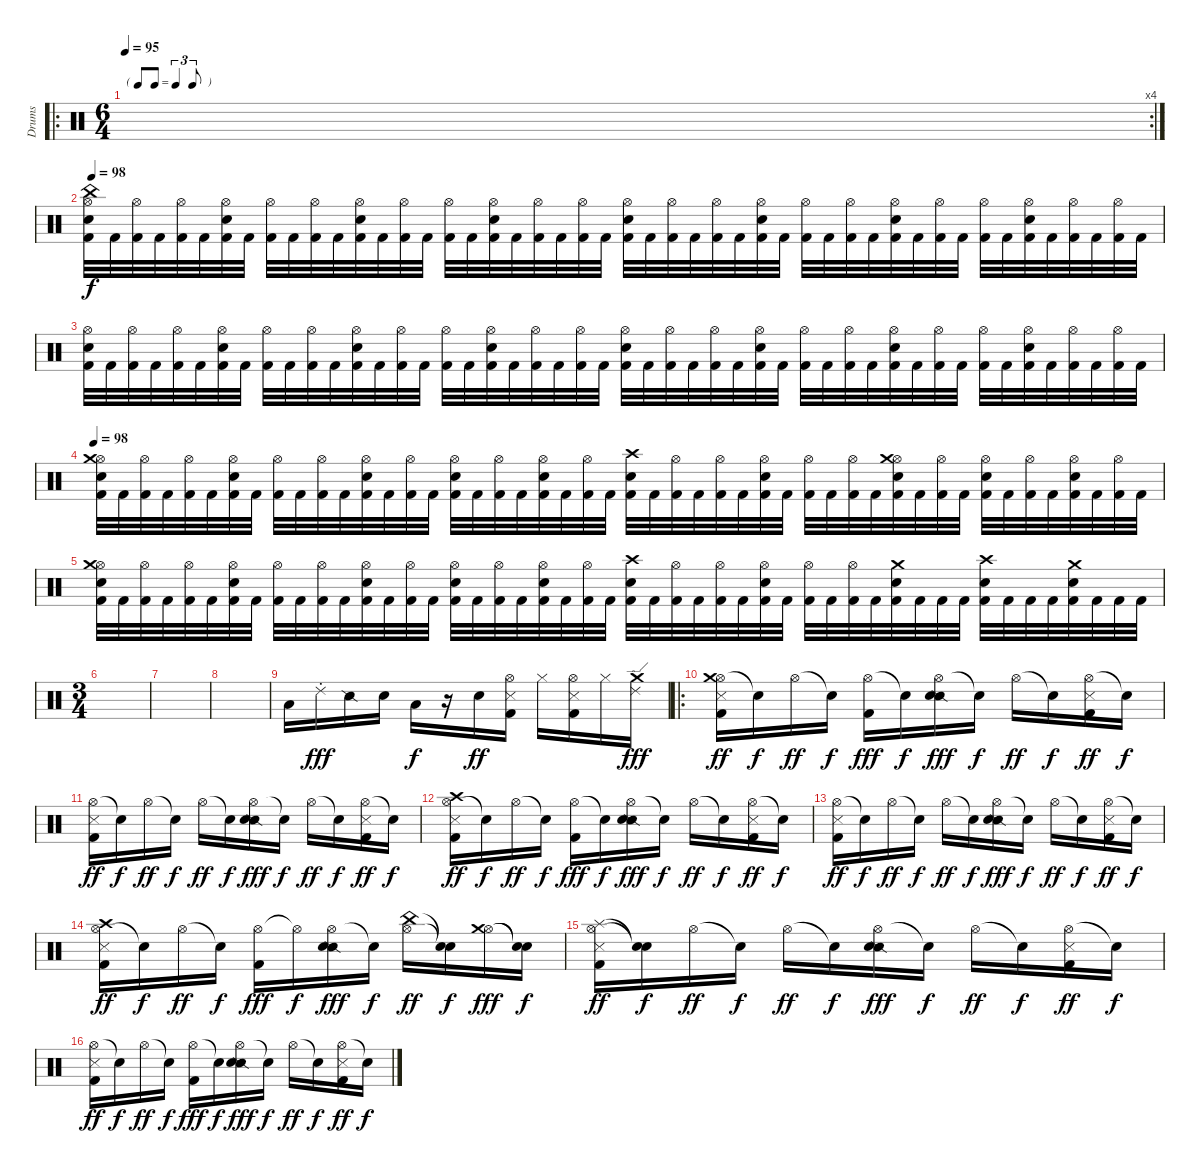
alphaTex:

\track ("Drums" "Drums") {instrument percussion}
\staff {score}
\articulation defaults
\ro
\rc 4
\ts (6 4)
\tf triplet8th
\tempo 95
\clef neutral
\ks c
|
\tempo 98
("Hi-Hat (open)" "China (hit)" "Electric Snare (hit)" "Kick (hit) 2").32 "Kick (hit) 2".32 ("Hi-Hat (open)" "Kick (hit) 2").32 "Kick (hit) 2".32 ("Hi-Hat (open)" "Kick (hit) 2").32 "Kick (hit) 2".32 ("Hi-Hat (open)" "Electric Snare (hit)" "Kick (hit) 2").32 "Kick (hit) 2".32 ("Hi-Hat (open)" "Kick (hit) 2").32 "Kick (hit) 2".32 ("Hi-Hat (open)" "Kick (hit) 2").32 "Kick (hit) 2".32 ("Hi-Hat (open)" "Electric Snare (hit)" "Kick (hit) 2").32 "Kick (hit) 2".32 ("Hi-Hat (open)" "Kick (hit) 2").32 "Kick (hit) 2".32 ("Hi-Hat (open)" "Kick (hit) 2").32 "Kick (hit) 2".32 ("Hi-Hat (open)" "Electric Snare (hit)" "Kick (hit) 2").32 "Kick (hit) 2".32 ("Hi-Hat (open)" "Kick (hit) 2").32 "Kick (hit) 2".32 ("Hi-Hat (open)" "Kick (hit) 2").32 "Kick (hit) 2".32 ("Hi-Hat (open)" "Electric Snare (hit)" "Kick (hit) 2").32 "Kick (hit) 2".32 ("Hi-Hat (open)" "Kick (hit) 2").32 "Kick (hit) 2".32 ("Hi-Hat (open)" "Kick (hit) 2").32 "Kick (hit) 2".32 ("Hi-Hat (open)" "Electric Snare (hit)" "Kick (hit) 2").32 "Kick (hit) 2".32 ("Hi-Hat (open)" "Kick (hit) 2").32 "Kick (hit) 2".32 ("Hi-Hat (open)" "Kick (hit) 2").32 "Kick (hit) 2".32 ("Hi-Hat (open)" "Electric Snare (hit)" "Kick (hit) 2").32 "Kick (hit) 2".32 ("Hi-Hat (open)" "Kick (hit) 2").32 "Kick (hit) 2".32 ("Hi-Hat (open)" "Kick (hit) 2").32 "Kick (hit) 2".32 ("Hi-Hat (open)" "Electric Snare (hit)" "Kick (hit) 2").32 "Kick (hit) 2".32 ("Hi-Hat (open)" "Kick (hit) 2").32 "Kick (hit) 2".32 ("Hi-Hat (open)" "Kick (hit) 2").32 "Kick (hit) 2".32 |
("Hi-Hat (open)" "Electric Snare (hit)" "Kick (hit) 2").32 "Kick (hit) 2".32 ("Hi-Hat (open)" "Kick (hit) 2").32 "Kick (hit) 2".32 ("Hi-Hat (open)" "Kick (hit) 2").32 "Kick (hit) 2".32 ("Hi-Hat (open)" "Electric Snare (hit)" "Kick (hit) 2").32 "Kick (hit) 2".32 ("Hi-Hat (open)" "Kick (hit) 2").32 "Kick (hit) 2".32 ("Hi-Hat (open)" "Kick (hit) 2").32 "Kick (hit) 2".32 ("Hi-Hat (open)" "Electric Snare (hit)" "Kick (hit) 2").32 "Kick (hit) 2".32 ("Hi-Hat (open)" "Kick (hit) 2").32 "Kick (hit) 2".32 ("Hi-Hat (open)" "Kick (hit) 2").32 "Kick (hit) 2".32 ("Hi-Hat (open)" "Electric Snare (hit)" "Kick (hit) 2").32 "Kick (hit) 2".32 ("Hi-Hat (open)" "Kick (hit) 2").32 "Kick (hit) 2".32 ("Hi-Hat (open)" "Kick (hit) 2").32 "Kick (hit) 2".32 ("Hi-Hat (open)" "Electric Snare (hit)" "Kick (hit) 2").32 "Kick (hit) 2".32 ("Hi-Hat (open)" "Kick (hit) 2").32 "Kick (hit) 2".32 ("Hi-Hat (open)" "Kick (hit) 2").32 "Kick (hit) 2".32 ("Hi-Hat (open)" "Electric Snare (hit)" "Kick (hit) 2").32 "Kick (hit) 2".32 ("Hi-Hat (open)" "Kick (hit) 2").32 "Kick (hit) 2".32 ("Hi-Hat (open)" "Kick (hit) 2").32 "Kick (hit) 2".32 ("Hi-Hat (open)" "Electric Snare (hit)" "Kick (hit) 2").32 "Kick (hit) 2".32 ("Hi-Hat (open)" "Kick (hit) 2").32 "Kick (hit) 2".32 ("Hi-Hat (open)" "Kick (hit) 2").32 "Kick (hit) 2".32 ("Hi-Hat (open)" "Electric Snare (hit)" "Kick (hit) 2").32 "Kick (hit) 2".32 ("Hi-Hat (open)" "Kick (hit) 2").32 "Kick (hit) 2".32 ("Hi-Hat (open)" "Kick (hit) 2").32 "Kick (hit) 2".32 |
\tempo 98
("Hi-Hat (open)" "Crash medium (hit)" "Electric Snare (hit)" "Kick (hit) 2").32 "Kick (hit) 2".32 ("Hi-Hat (open)" "Kick (hit) 2").32 "Kick (hit) 2".32 ("Hi-Hat (open)" "Kick (hit) 2").32 "Kick (hit) 2".32 ("Hi-Hat (open)" "Electric Snare (hit)" "Kick (hit) 2").32 "Kick (hit) 2".32 ("Hi-Hat (open)" "Kick (hit) 2").32 "Kick (hit) 2".32 ("Hi-Hat (open)" "Kick (hit) 2").32 "Kick (hit) 2".32 ("Hi-Hat (open)" "Electric Snare (hit)" "Kick (hit) 2").32 "Kick (hit) 2".32 ("Hi-Hat (open)" "Kick (hit) 2").32 "Kick (hit) 2".32 ("Hi-Hat (open)" "Electric Snare (hit)" "Kick (hit) 2").32 "Kick (hit) 2".32 ("Hi-Hat (open)" "Kick (hit) 2").32 "Kick (hit) 2".32 ("Hi-Hat (open)" "Electric Snare (hit)" "Kick (hit) 2").32 "Kick (hit) 2".32 ("Hi-Hat (open)" "Kick (hit) 2").32 "Kick (hit) 2".32 ("Crash high (hit)" "Electric Snare (hit)" "Kick (hit) 2").32 "Kick (hit) 2".32 ("Hi-Hat (open)" "Kick (hit) 2").32 "Kick (hit) 2".32 ("Hi-Hat (open)" "Kick (hit) 2").32 "Kick (hit) 2".32 ("Hi-Hat (open)" "Electric Snare (hit)" "Kick (hit) 2").32 "Kick (hit) 2".32 ("Hi-Hat (open)" "Kick (hit) 2").32 "Kick (hit) 2".32 ("Hi-Hat (open)" "Kick (hit) 2").32 "Kick (hit) 2".32 ("Hi-Hat (open)" "Crash medium (hit)" "Electric Snare (hit)" "Kick (hit) 2").32 "Kick (hit) 2".32 ("Hi-Hat (open)" "Kick (hit) 2").32 "Kick (hit) 2".32 ("Hi-Hat (open)" "Electric Snare (hit)" "Kick (hit) 2").32 "Kick (hit) 2".32 ("Hi-Hat (open)" "Kick (hit) 2").32 "Kick (hit) 2".32 ("Hi-Hat (open)" "Electric Snare (hit)" "Kick (hit) 2").32 "Kick (hit) 2".32 ("Hi-Hat (open)" "Kick (hit) 2").32 "Kick (hit) 2".32 |
("Hi-Hat (open)" "Crash medium (hit)" "Electric Snare (hit)" "Kick (hit) 2").32 "Kick (hit) 2".32 ("Hi-Hat (open)" "Kick (hit) 2").32 "Kick (hit) 2".32 ("Hi-Hat (open)" "Kick (hit) 2").32 "Kick (hit) 2".32 ("Hi-Hat (open)" "Electric Snare (hit)" "Kick (hit) 2").32 "Kick (hit) 2".32 ("Hi-Hat (open)" "Kick (hit) 2").32 "Kick (hit) 2".32 ("Hi-Hat (open)" "Kick (hit) 2").32 "Kick (hit) 2".32 ("Hi-Hat (open)" "Electric Snare (hit)" "Kick (hit) 2").32 "Kick (hit) 2".32 ("Hi-Hat (open)" "Kick (hit) 2").32 "Kick (hit) 2".32 ("Hi-Hat (open)" "Electric Snare (hit)" "Kick (hit) 2").32 "Kick (hit) 2".32 ("Hi-Hat (open)" "Kick (hit) 2").32 "Kick (hit) 2".32 ("Hi-Hat (open)" "Electric Snare (hit)" "Kick (hit) 2").32 "Kick (hit) 2".32 ("Hi-Hat (open)" "Kick (hit) 2").32 "Kick (hit) 2".32 ("Crash high (hit)" "Electric Snare (hit)" "Kick (hit) 2").32 "Kick (hit) 2".32 ("Hi-Hat (open)" "Kick (hit) 2").32 "Kick (hit) 2".32 ("Hi-Hat (open)" "Kick (hit) 2").32 "Kick (hit) 2".32 ("Hi-Hat (open)" "Electric Snare (hit)" "Kick (hit) 2").32 "Kick (hit) 2".32 ("Hi-Hat (open)" "Kick (hit) 2").32 "Kick (hit) 2".32 ("Hi-Hat (open)" "Kick (hit) 2").32 "Kick (hit) 2".32 ("Crash medium (hit)" "Electric Snare (hit)" "Kick (hit) 2").32 "Kick (hit) 2".32 "Kick (hit) 2".32 "Kick (hit) 2".32 ("Crash high (hit)" "Electric Snare (hit)" "Kick (hit) 2").32 "Kick (hit) 2".32 "Kick (hit) 2".32 "Kick (hit) 2".32 ("Crash medium (hit)" "Electric Snare (hit)" "Kick (hit) 2").32 "Kick (hit) 2".32 "Kick (hit) 2".32 "Kick (hit) 2".32 |
\ts (3 4)
|
|
|
"Low Tom (hit)".16 "Ride (choke) 2".16{dy fff} "Snare (side stick) 2".16 "Electric Snare (hit)".16 "Low Tom (hit)".16{dy f} r.16 "Electric Snare (hit)".16{dy ff} ("Hi-Hat (open)" "Metronome (hit)" "Kick (hit) 2").16 "Hi-Hat (closed)".16 ("Hi-Hat (open)" "Metronome (hit)" "Kick (hit) 2").16 "Hi-Hat (closed)".16 ("Ride (edge) 2" "Crash medium (hit)").16{dy fff} |
\ro
("Hi-Hat (open)" "Crash medium (hit)" "Metronome (hit)" "Kick (hit) 2").16{dy ff balance 8} "Snare (hit)"{t}.16{dy f} "Hi-Hat (open)".16{dy ff} "Snare (hit)"{t}.16{dy f} ("Hi-Hat (open)" "Kick (hit) 2").16{dy fff} "Snare (hit)"{t}.16{dy f} ("Hi-Hat (open)" "Snare (side stick) 2" "Electric Snare (hit)").16{dy fff} "Snare (hit)"{t}.16{dy f} "Hi-Hat (open)".16{dy ff} "Snare (hit)"{t}.16{dy f} ("Hi-Hat (open)" "Metronome (hit)" "Kick (hit) 2").16{dy ff} "Snare (hit)"{t}.16{dy f} |
("Hi-Hat (open)" "Metronome (hit)" "Kick (hit) 2").16{dy ff} "Snare (hit)"{t}.16{dy f} "Hi-Hat (open)".16{dy ff} "Snare (hit)"{t}.16{dy f} "Hi-Hat (open)".16{dy ff} "Snare (hit)"{t}.16{dy f} ("Hi-Hat (open)" "Snare (side stick) 2" "Electric Snare (hit)").16{dy fff} "Snare (hit)"{t}.16{dy f} "Hi-Hat (open)".16{dy ff} "Snare (hit)"{t}.16{dy f} ("Hi-Hat (open)" "Metronome (hit)" "Kick (hit) 2").16{dy ff} "Snare (hit)"{t}.16{dy f} |
("Hi-Hat (open)" "Crash high (hit)" "Metronome (hit)" "Kick (hit) 2").16{dy ff} "Snare (hit)"{t}.16{dy f} "Hi-Hat (open)".16{dy ff} "Snare (hit)"{t}.16{dy f} ("Hi-Hat (open)" "Kick (hit) 2").16{dy fff} "Snare (hit)"{t}.16{dy f} ("Hi-Hat (open)" "Snare (side stick) 2" "Electric Snare (hit)").16{dy fff} "Snare (hit)"{t}.16{dy f} "Hi-Hat (open)".16{dy ff} "Snare (hit)"{t}.16{dy f} ("Hi-Hat (open)" "Metronome (hit)" "Kick (hit) 2").16{dy ff} "Snare (hit)"{t}.16{dy f} |
("Hi-Hat (open)" "Metronome (hit)" "Kick (hit) 2").16{dy ff} "Snare (hit)"{t}.16{dy f} "Hi-Hat (open)".16{dy ff} "Snare (hit)"{t}.16{dy f} "Hi-Hat (open)".16{dy ff} "Snare (hit)"{t}.16{dy f} ("Hi-Hat (open)" "Snare (side stick) 2" "Electric Snare (hit)").16{dy fff} "Snare (hit)"{t}.16{dy f} "Hi-Hat (open)".16{dy ff} "Snare (hit)"{t}.16{dy f} ("Hi-Hat (open)" "Metronome (hit)" "Kick (hit) 2").16{dy ff} "Snare (hit)"{t}.16{dy f} |
("Hi-Hat (open)" "Crash high (hit)" "Metronome (hit)" "Kick (hit) 2").16{dy ff} "Snare (hit)"{t}.16{dy f} "Hi-Hat (open)".16{dy ff} "Snare (hit)"{t}.16{dy f} ("Hi-Hat (open)" "Kick (hit) 2").16{dy fff} "Hi-Hat (open)"{t}.16{dy f} ("Hi-Hat (open)" "Snare (side stick) 2" "Electric Snare (hit)").16{dy fff} "Snare (hit)"{t}.16{dy f} ("Hi-Hat (open)" "China (hit)").16{dy ff} ("Snare (hit)"{t} "Snare (hit)"{t}).16{dy f} ("Hi-Hat (open)" "Crash medium (hit)").16{dy fff} ("Snare (hit)"{t} "Snare (hit)"{t}).16{dy f} |
("Hi-Hat (open)" "Splash (hit)" "Metronome (hit)" "Kick (hit) 2").16{dy ff} ("Snare (hit)"{t} "Snare (hit)"{t}).16{dy f} "Hi-Hat (open)".16{dy ff} "Snare (hit)"{t}.16{dy f} "Hi-Hat (open)".16{dy ff} "Snare (hit)"{t}.16{dy f} ("Hi-Hat (open)" "Snare (side stick) 2" "Electric Snare (hit)").16{dy fff} "Snare (hit)"{t}.16{dy f} "Hi-Hat (open)".16{dy ff} "Snare (hit)"{t}.16{dy f} ("Hi-Hat (open)" "Metronome (hit)" "Kick (hit) 2").16{dy ff} "Snare (hit)"{t}.16{dy f} |
("Hi-Hat (open)" "Metronome (hit)" "Kick (hit) 2").16{dy ff} "Snare (hit)"{t}.16{dy f} "Hi-Hat (open)".16{dy ff} "Snare (hit)"{t}.16{dy f} ("Hi-Hat (open)" "Kick (hit) 2").16{dy fff} "Snare (hit)"{t}.16{dy f} ("Hi-Hat (open)" "Snare (side stick) 2" "Electric Snare (hit)").16{dy fff} "Snare (hit)"{t}.16{dy f} "Hi-Hat (open)".16{dy ff} "Snare (hit)"{t}.16{dy f} ("Hi-Hat (open)" "Metronome (hit)" "Kick (hit) 2").16{dy ff} "Snare (hit)"{t}.16{dy f}
